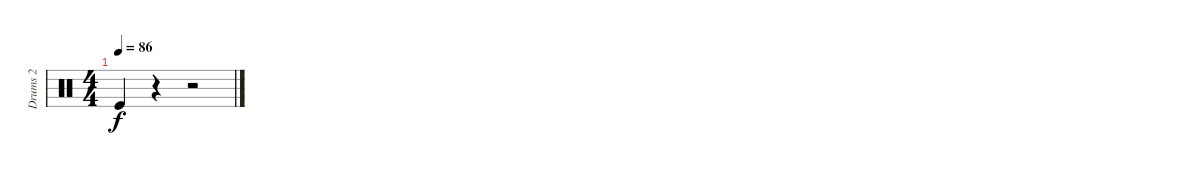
\track ("Drums 2" "Drums 2") {instrument percussion}
\staff {score}
\articulation defaults
\ts (4 4)
\tempo 86
\clef neutral
\ks c "Kick (hit)".4{dy f}
r.4 r.2
